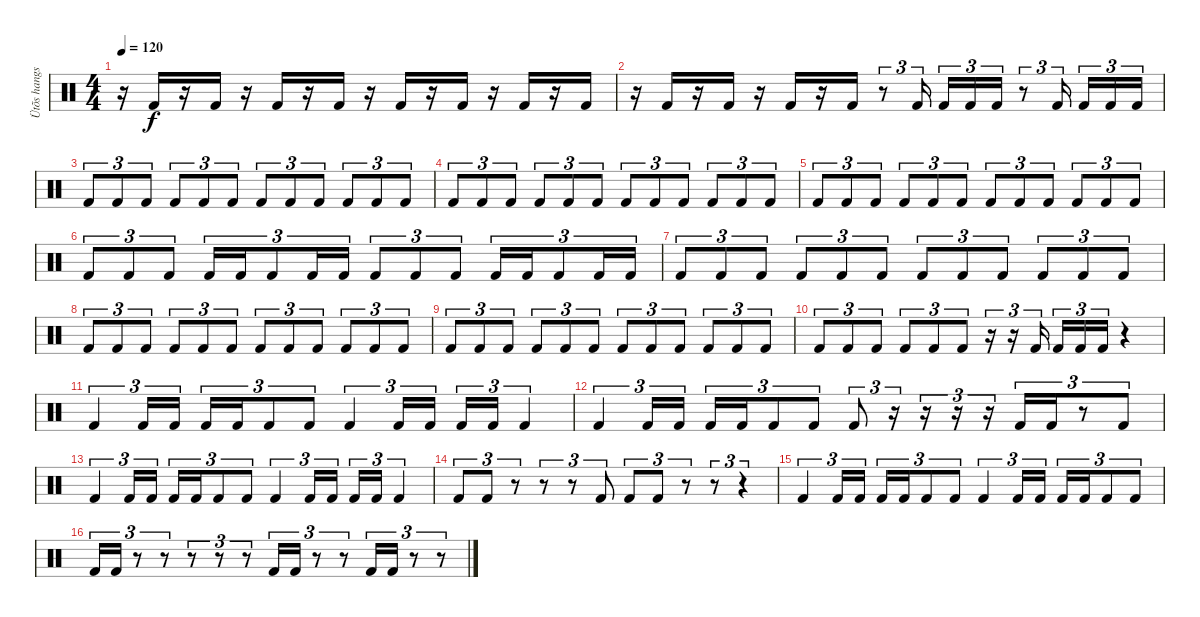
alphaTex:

\track ("Ütõs hangszer" "Ütõs hangs") {instrument percussion}
\staff {score}
\articulation defaults
\ts (4 4)
\tempo 120
\clef neutral
\ks c
r.16{dy f} "Kick (hit) 2".16 r.16 "Kick (hit) 2".16 r.16 "Kick (hit) 2".16 r.16 "Kick (hit) 2".16 r.16 "Kick (hit) 2".16 r.16 "Kick (hit) 2".16 r.16 "Kick (hit) 2".16 r.16 "Kick (hit) 2".16 |
r.16 "Kick (hit) 2".16 r.16 "Kick (hit) 2".16 r.16 "Kick (hit) 2".16 r.16 "Kick (hit) 2".16 r.8{tu (3 2)} "Kick (hit) 2".16{tu (3 2)} "Kick (hit) 2".16{tu (3 2)} "Kick (hit) 2".16{tu (3 2)} "Kick (hit) 2".16{tu (3 2)} r.8{tu (3 2)} "Kick (hit) 2".16{tu (3 2)} "Kick (hit) 2".16{tu (3 2)} "Kick (hit) 2".16{tu (3 2)} "Kick (hit) 2".16{tu (3 2)} |
"Kick (hit) 2".8{tu (3 2)} "Kick (hit) 2".8{tu (3 2)} "Kick (hit) 2".8{tu (3 2)} "Kick (hit) 2".8{tu (3 2)} "Kick (hit) 2".8{tu (3 2)} "Kick (hit) 2".8{tu (3 2)} "Kick (hit) 2".8{tu (3 2)} "Kick (hit) 2".8{tu (3 2)} "Kick (hit) 2".8{tu (3 2)} "Kick (hit) 2".8{tu (3 2)} "Kick (hit) 2".8{tu (3 2)} "Kick (hit) 2".8{tu (3 2)} |
"Kick (hit) 2".8{tu (3 2)} "Kick (hit) 2".8{tu (3 2)} "Kick (hit) 2".8{tu (3 2)} "Kick (hit) 2".8{tu (3 2)} "Kick (hit) 2".8{tu (3 2)} "Kick (hit) 2".8{tu (3 2)} "Kick (hit) 2".8{tu (3 2)} "Kick (hit) 2".8{tu (3 2)} "Kick (hit) 2".8{tu (3 2)} "Kick (hit) 2".8{tu (3 2)} "Kick (hit) 2".8{tu (3 2)} "Kick (hit) 2".8{tu (3 2)} |
"Kick (hit) 2".8{tu (3 2)} "Kick (hit) 2".8{tu (3 2)} "Kick (hit) 2".8{tu (3 2)} "Kick (hit) 2".8{tu (3 2)} "Kick (hit) 2".8{tu (3 2)} "Kick (hit) 2".8{tu (3 2)} "Kick (hit) 2".8{tu (3 2)} "Kick (hit) 2".8{tu (3 2)} "Kick (hit) 2".8{tu (3 2)} "Kick (hit) 2".8{tu (3 2)} "Kick (hit) 2".8{tu (3 2)} "Kick (hit) 2".8{tu (3 2)} |
"Kick (hit) 2".8{tu (3 2)} "Kick (hit) 2".8{tu (3 2)} "Kick (hit) 2".8{tu (3 2)} "Kick (hit) 2".16{tu (3 2)} "Kick (hit) 2".16{tu (3 2)} "Kick (hit) 2".8{tu (3 2)} "Kick (hit) 2".16{tu (3 2)} "Kick (hit) 2".16{tu (3 2)} "Kick (hit) 2".8{tu (3 2)} "Kick (hit) 2".8{tu (3 2)} "Kick (hit) 2".8{tu (3 2)} "Kick (hit) 2".16{tu (3 2)} "Kick (hit) 2".16{tu (3 2)} "Kick (hit) 2".8{tu (3 2)} "Kick (hit) 2".16{tu (3 2)} "Kick (hit) 2".16{tu (3 2)} |
"Kick (hit) 2".8{tu (3 2)} "Kick (hit) 2".8{tu (3 2)} "Kick (hit) 2".8{tu (3 2)} "Kick (hit) 2".8{tu (3 2)} "Kick (hit) 2".8{tu (3 2)} "Kick (hit) 2".8{tu (3 2)} "Kick (hit) 2".8{tu (3 2)} "Kick (hit) 2".8{tu (3 2)} "Kick (hit) 2".8{tu (3 2)} "Kick (hit) 2".8{tu (3 2)} "Kick (hit) 2".8{tu (3 2)} "Kick (hit) 2".8{tu (3 2)} |
"Kick (hit) 2".8{tu (3 2)} "Kick (hit) 2".8{tu (3 2)} "Kick (hit) 2".8{tu (3 2)} "Kick (hit) 2".8{tu (3 2)} "Kick (hit) 2".8{tu (3 2)} "Kick (hit) 2".8{tu (3 2)} "Kick (hit) 2".8{tu (3 2)} "Kick (hit) 2".8{tu (3 2)} "Kick (hit) 2".8{tu (3 2)} "Kick (hit) 2".8{tu (3 2)} "Kick (hit) 2".8{tu (3 2)} "Kick (hit) 2".8{tu (3 2)} |
"Kick (hit) 2".8{tu (3 2)} "Kick (hit) 2".8{tu (3 2)} "Kick (hit) 2".8{tu (3 2)} "Kick (hit) 2".8{tu (3 2)} "Kick (hit) 2".8{tu (3 2)} "Kick (hit) 2".8{tu (3 2)} "Kick (hit) 2".8{tu (3 2)} "Kick (hit) 2".8{tu (3 2)} "Kick (hit) 2".8{tu (3 2)} "Kick (hit) 2".8{tu (3 2)} "Kick (hit) 2".8{tu (3 2)} "Kick (hit) 2".8{tu (3 2)} |
"Kick (hit) 2".8{tu (3 2)} "Kick (hit) 2".8{tu (3 2)} "Kick (hit) 2".8{tu (3 2)} "Kick (hit) 2".8{tu (3 2)} "Kick (hit) 2".8{tu (3 2)} "Kick (hit) 2".8{tu (3 2)} r.16{tu (3 2)} r.16{tu (3 2)} "Kick (hit) 2".16{tu (3 2)} "Kick (hit) 2".16{tu (3 2)} "Kick (hit) 2".16{tu (3 2)} "Kick (hit) 2".16{tu (3 2)} r.4 |
"Kick (hit) 2".4{tu (3 2)} "Kick (hit) 2".16{tu (3 2)} "Kick (hit) 2".16{tu (3 2)} "Kick (hit) 2".16{tu (3 2)} "Kick (hit) 2".16{tu (3 2)} "Kick (hit) 2".8{tu (3 2)} "Kick (hit) 2".8{tu (3 2)} "Kick (hit) 2".4{tu (3 2)} "Kick (hit) 2".16{tu (3 2)} "Kick (hit) 2".16{tu (3 2)} "Kick (hit) 2".16{tu (3 2)} "Kick (hit) 2".16{tu (3 2)} "Kick (hit) 2".4{tu (3 2)} |
"Kick (hit) 2".4{tu (3 2)} "Kick (hit) 2".16{tu (3 2)} "Kick (hit) 2".16{tu (3 2)} "Kick (hit) 2".16{tu (3 2)} "Kick (hit) 2".16{tu (3 2)} "Kick (hit) 2".8{tu (3 2)} "Kick (hit) 2".8{tu (3 2)} "Kick (hit) 2".8{tu (3 2)} r.16{tu (3 2)} r.16{tu (3 2)} r.16{tu (3 2)} r.16{tu (3 2)} "Kick (hit) 2".16{tu (3 2)} "Kick (hit) 2".16{tu (3 2)} r.8{tu (3 2)} "Kick (hit) 2".8{tu (3 2)} |
"Kick (hit) 2".4{tu (3 2)} "Kick (hit) 2".16{tu (3 2)} "Kick (hit) 2".16{tu (3 2)} "Kick (hit) 2".16{tu (3 2)} "Kick (hit) 2".16{tu (3 2)} "Kick (hit) 2".8{tu (3 2)} "Kick (hit) 2".8{tu (3 2)} "Kick (hit) 2".4{tu (3 2)} "Kick (hit) 2".16{tu (3 2)} "Kick (hit) 2".16{tu (3 2)} "Kick (hit) 2".16{tu (3 2)} "Kick (hit) 2".16{tu (3 2)} "Kick (hit) 2".4{tu (3 2)} |
"Kick (hit) 2".8{tu (3 2)} "Kick (hit) 2".8{tu (3 2)} r.8{tu (3 2)} r.8{tu (3 2)} r.8{tu (3 2)} "Kick (hit) 2".8{tu (3 2)} "Kick (hit) 2".8{tu (3 2)} "Kick (hit) 2".8{tu (3 2)} r.8{tu (3 2)} r.8{tu (3 2)} r.4{tu (3 2)} |
"Kick (hit) 2".4{tu (3 2)} "Kick (hit) 2".16{tu (3 2)} "Kick (hit) 2".16{tu (3 2)} "Kick (hit) 2".16{tu (3 2)} "Kick (hit) 2".16{tu (3 2)} "Kick (hit) 2".8{tu (3 2)} "Kick (hit) 2".8{tu (3 2)} "Kick (hit) 2".4{tu (3 2)} "Kick (hit) 2".16{tu (3 2)} "Kick (hit) 2".16{tu (3 2)} "Kick (hit) 2".16{tu (3 2)} "Kick (hit) 2".16{tu (3 2)} "Kick (hit) 2".8{tu (3 2)} "Kick (hit) 2".8{tu (3 2)} |
"Kick (hit) 2".16{tu (3 2)} "Kick (hit) 2".16{tu (3 2)} r.8{tu (3 2)} r.8{tu (3 2)} r.8{tu (3 2)} r.8{tu (3 2)} r.8{tu (3 2)} "Kick (hit) 2".16{tu (3 2)} "Kick (hit) 2".16{tu (3 2)} r.8{tu (3 2)} r.8{tu (3 2)} "Kick (hit) 2".16{tu (3 2)} "Kick (hit) 2".16{tu (3 2)} r.8{tu (3 2)} r.8{tu (3 2)}
